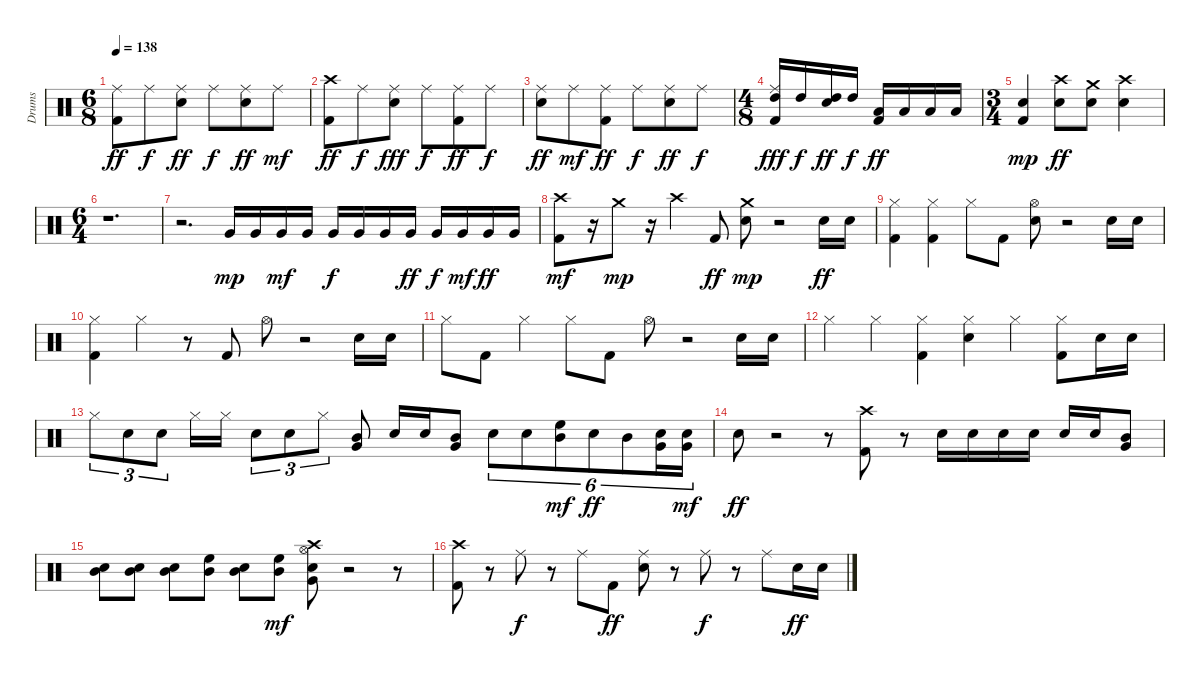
\track ("Drums" "Drums") {instrument percussion}
\staff {score}
\articulation defaults
\ts (6 8)
\tempo 138
\clef neutral
\ks c
("Kick (hit) 2" "Ride (middle)").8{dy ff} "Ride (middle)".8{dy f} ("Snare (hit) 2" "Ride (middle)").8{dy ff} "Ride (middle)".8{dy f} ("Snare (hit) 2" "Ride (middle)").8{dy ff} "Ride (middle)".8{dy mf} |
("Kick (hit) 2" "Crash high (hit)").8{dy ff} "Ride (middle)".8{dy f} ("Snare (hit) 2" "Ride (middle)").8{dy fff} "Ride (middle)".8{dy f} ("Kick (hit) 2" "Ride (middle)").8{dy ff} "Ride (middle)".8{dy f} |
("Snare (hit) 2" "Ride (middle)").8{dy ff} "Ride (middle)".8{dy mf} ("Kick (hit) 2" "Ride (middle)").8{dy ff} "Ride (middle)".8{dy f} ("Snare (hit) 2" "Ride (middle)").8{dy ff} "Ride (middle)".8{dy f} |
\ts (4 8)
("Kick (hit) 2" "High Tom (hit)" "Ride (middle)").16{dy fff} "High Tom (hit)".16{dy f} ("Snare (hit) 2" "High Tom (hit)").16{dy ff} "High Tom (hit)".16{dy f} ("Kick (hit) 2" "Low Tom (hit)").16{dy ff} "Low Tom (hit)".16 "Low Tom (hit)".16 "Low Tom (hit)".16 |
\ts (3 4)
("Kick (hit) 2" "Snare (hit) 2").4{dy mp} ("Snare (hit) 2" "Crash high (hit)").8{dy ff} ("Snare (hit) 2" "Crash medium (hit)").8 ("Snare (hit) 2" "Crash high (hit)").4 |
\ts (6 4)
r.1{d} |
r.2{d} "Very Low Tom (hit)".16{dy mp} "Very Low Tom (hit)".16 "Very Low Tom (hit)".16{dy mf} "Very Low Tom (hit)".16 "Very Low Tom (hit)".16{dy f} "Very Low Tom (hit)".16 "Very Low Tom (hit)".16 "Very Low Tom (hit)".16{dy ff} "Very Low Tom (hit)".16{dy f} "Very Low Tom (hit)".16{dy mf} "Very Low Tom (hit)".16{dy ff} "Very Low Tom (hit)".16 |
("Kick (hit) 2" "Crash high (hit)").8{dy mf} r.16 "Crash medium (hit)".8{dy mp} r.16 "Crash high (hit)".4 "Kick (hit) 2".8{dy ff} ("Snare (hit) 2" "Crash medium (hit)").8{dy mp} r.2 "Snare (hit) 2".16{dy ff} "Snare (hit) 2".16 |
("Kick (hit) 2" "Hi-Hat (closed)").4 ("Kick (hit) 2" "Hi-Hat (closed)").4 "Hi-Hat (closed)".8 "Kick (hit) 2".8 ("Snare (hit) 2" "Hi-Hat (open)").8 r.2 "Snare (hit) 2".16 "Snare (hit) 2".16 |
("Kick (hit) 2" "Hi-Hat (closed)").4 "Hi-Hat (closed)".4 r.8 "Kick (hit) 2".8 "Hi-Hat (open)".8 r.2 "Snare (hit) 2".16 "Snare (hit) 2".16 |
"Hi-Hat (closed)".8 "Kick (hit) 2".8 "Hi-Hat (closed)".4 "Hi-Hat (closed)".8 "Kick (hit) 2".8 "Hi-Hat (open)".8 r.2 "Snare (hit) 2".16 "Snare (hit) 2".16 |
"Hi-Hat (closed)".4 "Hi-Hat (closed)".4 ("Kick (hit) 2" "Hi-Hat (closed)").4 ("Snare (hit) 2" "Hi-Hat (closed)").4 "Hi-Hat (closed)".4 ("Kick (hit) 2" "Hi-Hat (closed)").8 "Snare (hit) 2".16 "Snare (hit) 2".16 |
"Hi-Hat (closed)".8{tu (3 2)} "Snare (hit) 2".8{tu (3 2)} "Snare (hit) 2".8{tu (3 2)} "Hi-Hat (closed)".16 "Hi-Hat (closed)".16 "Snare (hit) 2".8{tu (3 2)} "Snare (hit) 2".8{tu (3 2)} "Hi-Hat (closed)".8{tu (3 2)} ("Very Low Tom (hit)" "Mid Tom (hit)").8 "Snare (hit) 2".16 "Snare (hit) 2".16 ("Very Low Tom (hit)" "Mid Tom (hit)").8 "Snare (hit) 2".8{tu (6 4)} "Snare (hit) 2".8{tu (6 4)} ("Mid Tom (hit)" "High Floor Tom (hit)").8{tu (6 4) dy mf} "Snare (hit) 2".8{tu (6 4) dy ff} "Mid Tom (hit)".8{tu (6 4)} ("Snare (hit) 2" "Very Low Tom (hit)").16{tu (6 4)} ("Snare (hit) 2" "Very Low Tom (hit)").16{tu (6 4) dy mf} |
"Snare (hit) 2".8{dy ff} r.2 r.8 ("Kick (hit) 2" "Crash high (hit)").8 r.8 "Snare (hit) 2".16 "Snare (hit) 2".16 "Snare (hit) 2".16 "Snare (hit) 2".16 "Snare (hit) 2".16 "Snare (hit) 2".16 ("Very Low Tom (hit)" "Mid Tom (hit)").8 |
("Snare (hit) 2" "Mid Tom (hit)").8 ("Snare (hit) 2" "Mid Tom (hit)").8 ("Snare (hit) 2" "Mid Tom (hit)").8 ("Mid Tom (hit)" "High Floor Tom (hit)").8 ("Snare (hit) 2" "Mid Tom (hit)").8 ("Mid Tom (hit)" "High Floor Tom (hit)").8{dy mf} ("Snare (hit) 2" "Very Low Tom (hit)" "Hi-Hat (open)" "Crash high (hit)").8 r.2 r.8 |
("Kick (hit) 2" "Crash high (hit)").8 r.8 "Ride (middle)".8{dy f} r.8 "Ride (middle)".8 "Kick (hit) 2".8{dy ff} ("Snare (hit) 2" "Ride (middle)").8 r.8 "Ride (middle)".8{dy f} r.8 "Ride (middle)".8 "Snare (hit) 2".16{dy ff} "Snare (hit) 2".16
